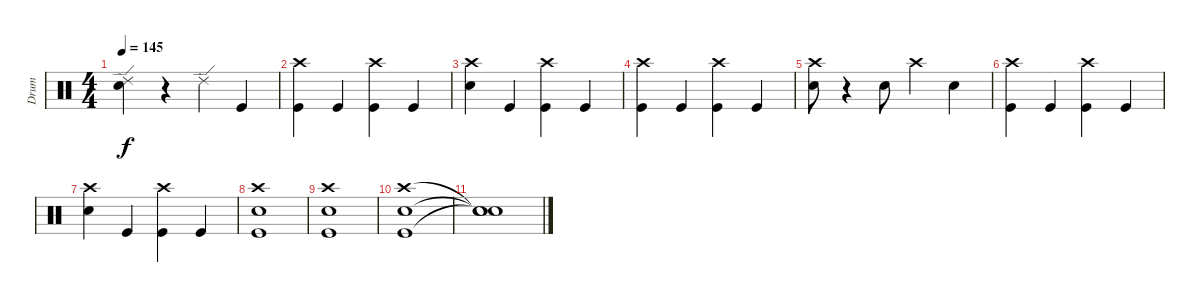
\track ("Drum" "Drum") {instrument percussion}
\staff {score}
\articulation defaults
\ts (4 4)
\tempo 145
\clef neutral
\ks c
("Ride (edge) 2" "Snare (hit) 2").4{dy f} r.4 "Ride (edge) 2".4 "Kick (hit)".4 |
("Crash high (hit)" "Kick (hit)").4 "Kick (hit)".4 ("Crash high (hit)" "Kick (hit)").4 "Kick (hit)".4 |
("Crash high (hit)" "Snare (hit) 2").4 "Kick (hit)".4 ("Crash high (hit)" "Kick (hit)").4 "Kick (hit)".4 |
("Crash high (hit)" "Kick (hit)").4 "Kick (hit)".4 ("Crash high (hit)" "Kick (hit)").4 "Kick (hit)".4 |
("Crash high (hit)" "Snare (hit) 2").8 r.4 "Snare (hit) 2".8 "Crash high (hit)".4 "Snare (hit) 2".4 |
("Crash high (hit)" "Kick (hit)").4 "Kick (hit)".4 ("Crash high (hit)" "Kick (hit)").4 "Kick (hit)".4 |
("Crash high (hit)" "Snare (hit) 2").4 "Kick (hit)".4 ("Crash high (hit)" "Kick (hit)").4 "Kick (hit)".4 |
("Crash high (hit)" "Snare (hit) 2" "Kick (hit)").1 |
("Crash high (hit)" "Snare (hit) 2" "Kick (hit)").1 |
("Crash high (hit)" "Snare (hit) 2" "Kick (hit)").1 |
("Snare (hit)"{t} "Snare (hit)"{t} "Snare (hit)"{t}).1
